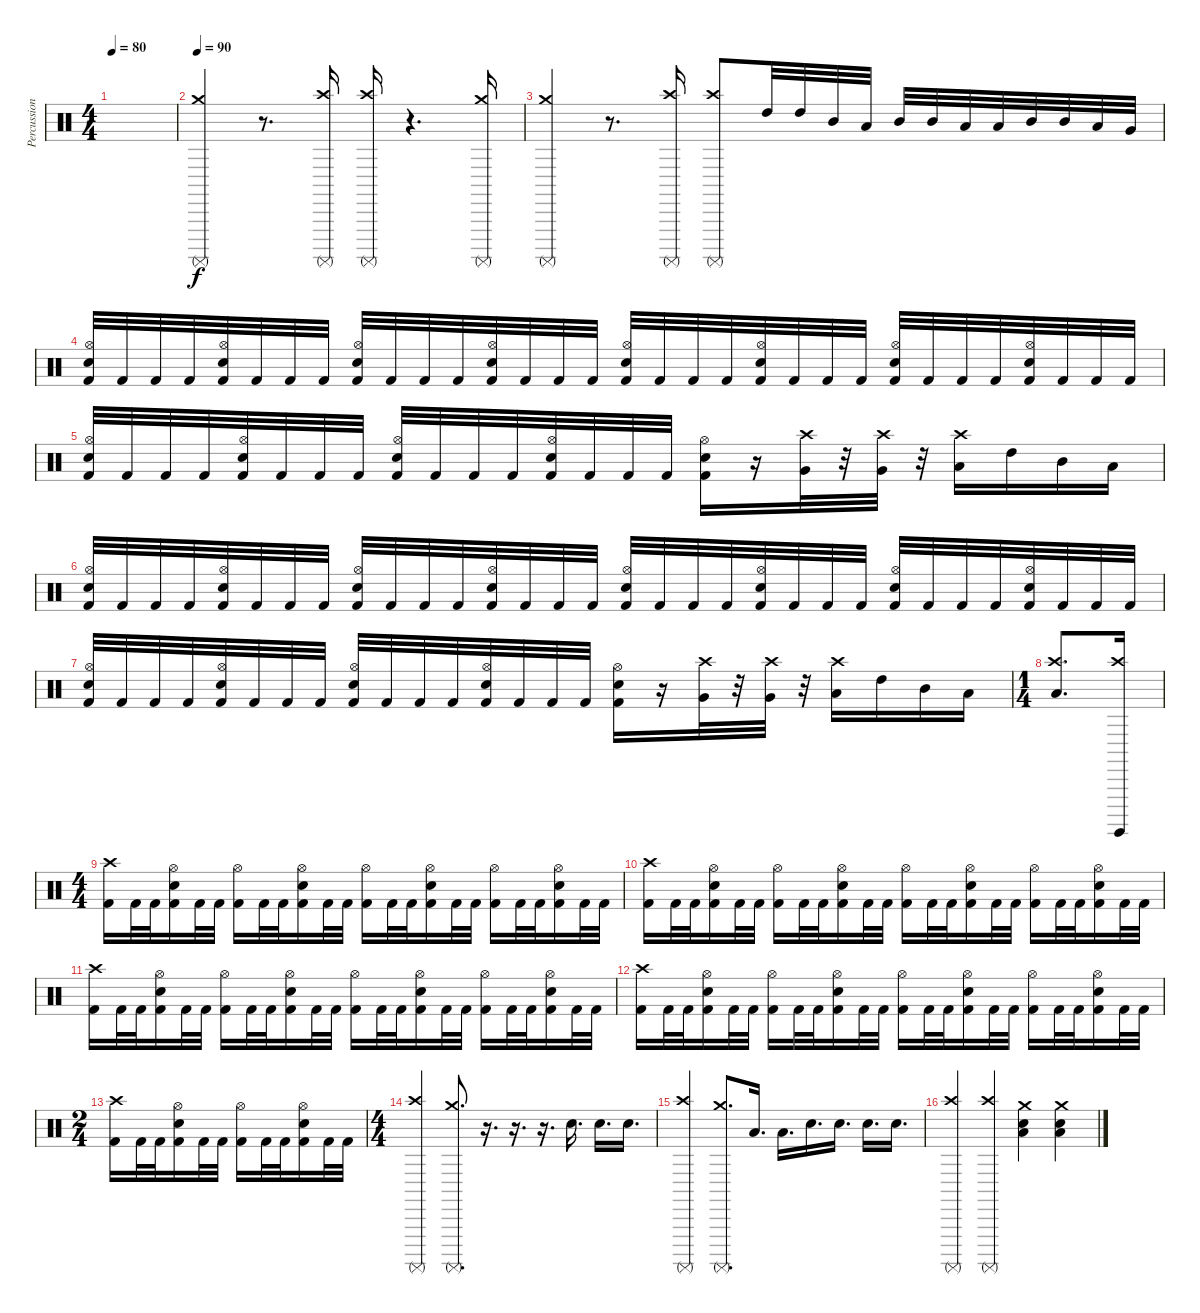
\track ("Percussion" "Percussion") {instrument percussion}
\staff {score}
\articulation defaults
\ts (4 4)
\tempo 80
\clef neutral
\ks c
|
\tempo 120
\tempo 90
("Surdo (mute)" "Crash medium (hit)").4 r.8{d} ("Surdo (mute)" "Crash high (hit)").16 ("Surdo (mute)" "Crash high (hit)").16 r.4{d} ("Surdo (mute)" "Crash medium (hit)").16 |
("Surdo (mute)" "Crash medium (hit)").4 r.8{d} ("Surdo (mute)" "Crash high (hit)").16 ("Surdo (mute)" "Crash high (hit)").8 "High Tom (hit)".32 "High Tom (hit)".32 "Mid Tom (hit)".32 "Low Tom (hit)".32 "Mid Tom (hit)".32 "Mid Tom (hit)".32 "Low Tom (hit)".32 "Low Tom (hit)".32 "Mid Tom (hit)".32 "Mid Tom (hit)".32 "Low Tom (hit)".32 "Very Low Tom (hit)".32 |
("Kick (hit) 2" "Hi-Hat (open)" "Electric Snare (hit)").32 "Kick (hit) 2".32 "Kick (hit) 2".32 "Kick (hit) 2".32 ("Kick (hit) 2" "Hi-Hat (open)" "Electric Snare (hit)").32 "Kick (hit) 2".32 "Kick (hit) 2".32 "Kick (hit) 2".32 ("Kick (hit) 2" "Hi-Hat (open)" "Electric Snare (hit)").32 "Kick (hit) 2".32 "Kick (hit) 2".32 "Kick (hit) 2".32 ("Kick (hit) 2" "Hi-Hat (open)" "Electric Snare (hit)").32 "Kick (hit) 2".32 "Kick (hit) 2".32 "Kick (hit) 2".32 ("Kick (hit) 2" "Hi-Hat (open)" "Electric Snare (hit)").32 "Kick (hit) 2".32 "Kick (hit) 2".32 "Kick (hit) 2".32 ("Kick (hit) 2" "Hi-Hat (open)" "Electric Snare (hit)").32 "Kick (hit) 2".32 "Kick (hit) 2".32 "Kick (hit) 2".32 ("Kick (hit) 2" "Hi-Hat (open)" "Electric Snare (hit)").32 "Kick (hit) 2".32 "Kick (hit) 2".32 "Kick (hit) 2".32 ("Kick (hit) 2" "Hi-Hat (open)" "Electric Snare (hit)").32 "Kick (hit) 2".32 "Kick (hit) 2".32 "Kick (hit) 2".32 |
("Kick (hit) 2" "Hi-Hat (open)" "Electric Snare (hit)").32 "Kick (hit) 2".32 "Kick (hit) 2".32 "Kick (hit) 2".32 ("Kick (hit) 2" "Hi-Hat (open)" "Electric Snare (hit)").32 "Kick (hit) 2".32 "Kick (hit) 2".32 "Kick (hit) 2".32 ("Kick (hit) 2" "Hi-Hat (open)" "Electric Snare (hit)").32 "Kick (hit) 2".32 "Kick (hit) 2".32 "Kick (hit) 2".32 ("Kick (hit) 2" "Hi-Hat (open)" "Electric Snare (hit)").32 "Kick (hit) 2".32 "Kick (hit) 2".32 "Kick (hit) 2".32 ("Kick (hit) 2" "Hi-Hat (open)" "Electric Snare (hit)").16 r.16 ("Crash high (hit)" "Very Low Tom (hit)").32 r.32 ("Crash high (hit)" "Very Low Tom (hit)").32 r.32 ("Crash high (hit)" "Low Floor Tom (hit)").16 "High Tom (hit)".16 "Mid Tom (hit)".16 "Low Tom (hit)".16 |
("Kick (hit) 2" "Hi-Hat (open)" "Electric Snare (hit)").32 "Kick (hit) 2".32 "Kick (hit) 2".32 "Kick (hit) 2".32 ("Kick (hit) 2" "Hi-Hat (open)" "Electric Snare (hit)").32 "Kick (hit) 2".32 "Kick (hit) 2".32 "Kick (hit) 2".32 ("Kick (hit) 2" "Hi-Hat (open)" "Electric Snare (hit)").32 "Kick (hit) 2".32 "Kick (hit) 2".32 "Kick (hit) 2".32 ("Kick (hit) 2" "Hi-Hat (open)" "Electric Snare (hit)").32 "Kick (hit) 2".32 "Kick (hit) 2".32 "Kick (hit) 2".32 ("Kick (hit) 2" "Hi-Hat (open)" "Electric Snare (hit)").32 "Kick (hit) 2".32 "Kick (hit) 2".32 "Kick (hit) 2".32 ("Kick (hit) 2" "Hi-Hat (open)" "Electric Snare (hit)").32 "Kick (hit) 2".32 "Kick (hit) 2".32 "Kick (hit) 2".32 ("Kick (hit) 2" "Hi-Hat (open)" "Electric Snare (hit)").32 "Kick (hit) 2".32 "Kick (hit) 2".32 "Kick (hit) 2".32 ("Kick (hit) 2" "Hi-Hat (open)" "Electric Snare (hit)").32 "Kick (hit) 2".32 "Kick (hit) 2".32 "Kick (hit) 2".32 |
("Kick (hit) 2" "Hi-Hat (open)" "Electric Snare (hit)").32 "Kick (hit) 2".32 "Kick (hit) 2".32 "Kick (hit) 2".32 ("Kick (hit) 2" "Hi-Hat (open)" "Electric Snare (hit)").32 "Kick (hit) 2".32 "Kick (hit) 2".32 "Kick (hit) 2".32 ("Kick (hit) 2" "Hi-Hat (open)" "Electric Snare (hit)").32 "Kick (hit) 2".32 "Kick (hit) 2".32 "Kick (hit) 2".32 ("Kick (hit) 2" "Hi-Hat (open)" "Electric Snare (hit)").32 "Kick (hit) 2".32 "Kick (hit) 2".32 "Kick (hit) 2".32 ("Kick (hit) 2" "Hi-Hat (open)" "Electric Snare (hit)").16 r.16 ("Crash high (hit)" "Very Low Tom (hit)").32 r.32 ("Crash high (hit)" "Very Low Tom (hit)").32 r.32 ("Crash high (hit)" "Low Floor Tom (hit)").16 "High Tom (hit)".16 "Mid Tom (hit)".16 "Low Tom (hit)".16 |
\ts (1 4)
("Low Tom (hit)" "Crash high (hit)").8{d} ("Surdo (hit)" "Crash high (hit)").16 |
\ts (4 4)
("Kick (hit) 2" "Crash high (hit)").16 "Kick (hit) 2".32 "Kick (hit) 2".32 ("Kick (hit) 2" "Electric Snare (hit)" "Hi-Hat (open)").16 "Kick (hit) 2".32 "Kick (hit) 2".32 ("Kick (hit) 2" "Hi-Hat (open)").16 "Kick (hit) 2".32 "Kick (hit) 2".32 ("Kick (hit) 2" "Electric Snare (hit)" "Hi-Hat (open)").16 "Kick (hit) 2".32 "Kick (hit) 2".32 ("Kick (hit) 2" "Hi-Hat (open)").16 "Kick (hit) 2".32 "Kick (hit) 2".32 ("Kick (hit) 2" "Electric Snare (hit)" "Hi-Hat (open)").16 "Kick (hit) 2".32 "Kick (hit) 2".32 ("Kick (hit) 2" "Hi-Hat (open)").16 "Kick (hit) 2".32 "Kick (hit) 2".32 ("Kick (hit) 2" "Electric Snare (hit)" "Hi-Hat (open)").16 "Kick (hit) 2".32 "Kick (hit) 2".32 |
("Kick (hit) 2" "Crash high (hit)").16 "Kick (hit) 2".32 "Kick (hit) 2".32 ("Kick (hit) 2" "Electric Snare (hit)" "Hi-Hat (open)").16 "Kick (hit) 2".32 "Kick (hit) 2".32 ("Kick (hit) 2" "Hi-Hat (open)").16 "Kick (hit) 2".32 "Kick (hit) 2".32 ("Kick (hit) 2" "Electric Snare (hit)" "Hi-Hat (open)").16 "Kick (hit) 2".32 "Kick (hit) 2".32 ("Kick (hit) 2" "Hi-Hat (open)").16 "Kick (hit) 2".32 "Kick (hit) 2".32 ("Kick (hit) 2" "Electric Snare (hit)" "Hi-Hat (open)").16 "Kick (hit) 2".32 "Kick (hit) 2".32 ("Kick (hit) 2" "Hi-Hat (open)").16 "Kick (hit) 2".32 "Kick (hit) 2".32 ("Kick (hit) 2" "Electric Snare (hit)" "Hi-Hat (open)").16 "Kick (hit) 2".32 "Kick (hit) 2".32 |
("Kick (hit) 2" "Crash high (hit)").16 "Kick (hit) 2".32 "Kick (hit) 2".32 ("Kick (hit) 2" "Electric Snare (hit)" "Hi-Hat (open)").16 "Kick (hit) 2".32 "Kick (hit) 2".32 ("Kick (hit) 2" "Hi-Hat (open)").16 "Kick (hit) 2".32 "Kick (hit) 2".32 ("Kick (hit) 2" "Electric Snare (hit)" "Hi-Hat (open)").16 "Kick (hit) 2".32 "Kick (hit) 2".32 ("Kick (hit) 2" "Hi-Hat (open)").16 "Kick (hit) 2".32 "Kick (hit) 2".32 ("Kick (hit) 2" "Electric Snare (hit)" "Hi-Hat (open)").16 "Kick (hit) 2".32 "Kick (hit) 2".32 ("Kick (hit) 2" "Hi-Hat (open)").16 "Kick (hit) 2".32 "Kick (hit) 2".32 ("Kick (hit) 2" "Electric Snare (hit)" "Hi-Hat (open)").16 "Kick (hit) 2".32 "Kick (hit) 2".32 |
("Kick (hit) 2" "Crash high (hit)").16 "Kick (hit) 2".32 "Kick (hit) 2".32 ("Kick (hit) 2" "Electric Snare (hit)" "Hi-Hat (open)").16 "Kick (hit) 2".32 "Kick (hit) 2".32 ("Kick (hit) 2" "Hi-Hat (open)").16 "Kick (hit) 2".32 "Kick (hit) 2".32 ("Kick (hit) 2" "Electric Snare (hit)" "Hi-Hat (open)").16 "Kick (hit) 2".32 "Kick (hit) 2".32 ("Kick (hit) 2" "Hi-Hat (open)").16 "Kick (hit) 2".32 "Kick (hit) 2".32 ("Kick (hit) 2" "Electric Snare (hit)" "Hi-Hat (open)").16 "Kick (hit) 2".32 "Kick (hit) 2".32 ("Kick (hit) 2" "Hi-Hat (open)").16 "Kick (hit) 2".32 "Kick (hit) 2".32 ("Kick (hit) 2" "Electric Snare (hit)" "Hi-Hat (open)").16 "Kick (hit) 2".32 "Kick (hit) 2".32 |
\ts (2 4)
("Kick (hit) 2" "Crash high (hit)").16 "Kick (hit) 2".32 "Kick (hit) 2".32 ("Kick (hit) 2" "Electric Snare (hit)" "Hi-Hat (open)").16 "Kick (hit) 2".32 "Kick (hit) 2".32 ("Kick (hit) 2" "Hi-Hat (open)").16 "Kick (hit) 2".32 "Kick (hit) 2".32 ("Kick (hit) 2" "Electric Snare (hit)" "Hi-Hat (open)").16 "Kick (hit) 2".32 "Kick (hit) 2".32 |
\ts (4 4)
("Crash high (hit)" "Surdo (mute)").4 ("Crash medium (hit)" "Surdo (mute)").8{d} r.16{d} r.16{d} r.16{d} "Snare (hit) 2".16{d} "Snare (hit) 2".16{d} "Snare (hit) 2".16{d} |
("Crash high (hit)" "Surdo (mute)").4 ("Crash medium (hit)" "Surdo (mute)").8{d} "Low Tom (hit)".16{d} "Low Tom (hit)".16{d} "Snare (hit) 2".16{d} "Snare (hit) 2".16{d} "Snare (hit) 2".16{d} "Snare (hit) 2".16{d} |
("Surdo (mute)" "Crash high (hit)").4 ("Surdo (mute)" "Crash high (hit)").4 ("Snare (hit) 2" "Low Tom (hit)" "Crash medium (hit)").4 ("Snare (hit) 2" "Low Tom (hit)" "Crash medium (hit)").4
